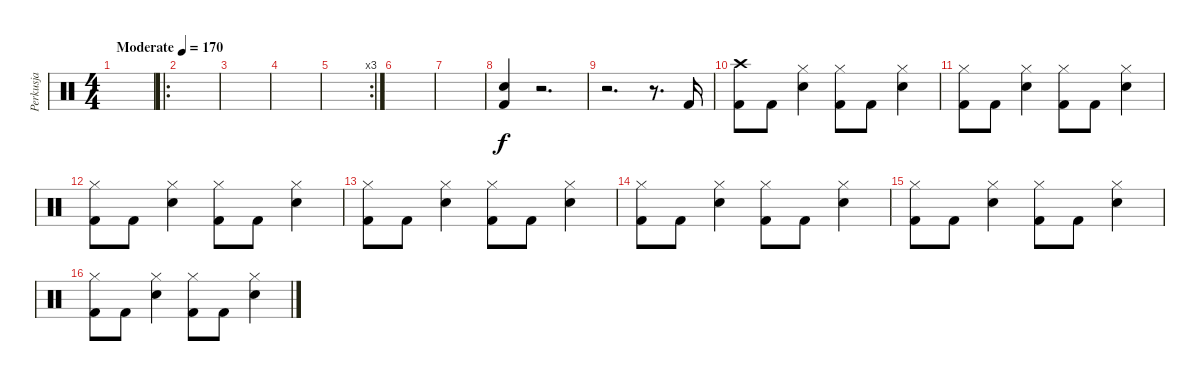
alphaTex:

\track ("Perkusja" "Perkusja") {instrument percussion}
\staff {score}
\articulation defaults
\ts (4 4)
\tempo (170 "Moderate")
\clef neutral
\ks c
|
\ro
|
|
|
\rc 3
|
|
|
("Electric Snare (hit)" "Kick (hit) 2").4 r.2{d} |
r.2{d} r.8{d} "Kick (hit) 2".16 |
("Crash high (hit)" "Kick (hit) 2").8 "Kick (hit) 2".8 ("Hi-Hat (closed)" "Electric Snare (hit)").4 ("Hi-Hat (closed)" "Kick (hit) 2").8 "Kick (hit) 2".8 ("Hi-Hat (closed)" "Electric Snare (hit)").4 |
("Hi-Hat (closed)" "Kick (hit) 2").8 "Kick (hit) 2".8 ("Hi-Hat (closed)" "Electric Snare (hit)").4 ("Hi-Hat (closed)" "Kick (hit) 2").8 "Kick (hit) 2".8 ("Hi-Hat (closed)" "Electric Snare (hit)").4 |
("Hi-Hat (closed)" "Kick (hit) 2").8 "Kick (hit) 2".8 ("Hi-Hat (closed)" "Electric Snare (hit)").4 ("Hi-Hat (closed)" "Kick (hit) 2").8 "Kick (hit) 2".8 ("Hi-Hat (closed)" "Electric Snare (hit)").4 |
("Hi-Hat (closed)" "Kick (hit) 2").8 "Kick (hit) 2".8 ("Hi-Hat (closed)" "Electric Snare (hit)").4 ("Hi-Hat (closed)" "Kick (hit) 2").8 "Kick (hit) 2".8 ("Hi-Hat (closed)" "Electric Snare (hit)").4 |
("Hi-Hat (closed)" "Kick (hit) 2").8 "Kick (hit) 2".8 ("Hi-Hat (closed)" "Electric Snare (hit)").4 ("Hi-Hat (closed)" "Kick (hit) 2").8 "Kick (hit) 2".8 ("Hi-Hat (closed)" "Electric Snare (hit)").4 |
("Hi-Hat (closed)" "Kick (hit) 2").8 "Kick (hit) 2".8 ("Hi-Hat (closed)" "Electric Snare (hit)").4 ("Hi-Hat (closed)" "Kick (hit) 2").8 "Kick (hit) 2".8 ("Hi-Hat (closed)" "Electric Snare (hit)").4 |
("Hi-Hat (closed)" "Kick (hit) 2").8 "Kick (hit) 2".8 ("Hi-Hat (closed)" "Electric Snare (hit)").4 ("Hi-Hat (closed)" "Kick (hit) 2").8 "Kick (hit) 2".8 ("Hi-Hat (closed)" "Electric Snare (hit)").4
